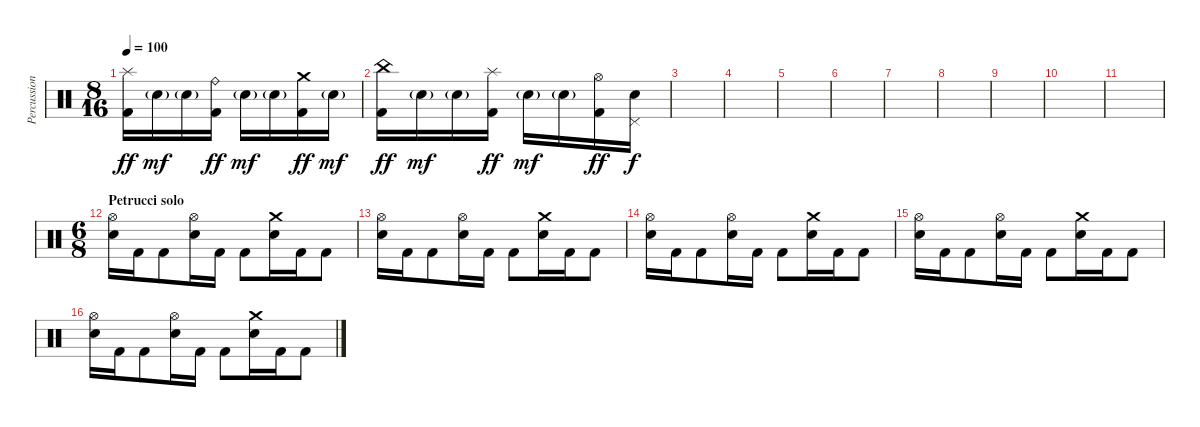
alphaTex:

\track ("Percussions" "Percussion") {instrument percussion}
\staff {score}
\articulation defaults
\ts (8 16)
\tempo 100
\clef neutral
\ks c
("Splash (hit)" "Kick (hit) 2").16{dy ff} "Electric Snare (hit)"{g}.16{dy mf} "Electric Snare (hit)"{g}.16 ("Ride (bell)" "Kick (hit) 2").16{dy ff} "Electric Snare (hit)"{g}.16{dy mf} "Electric Snare (hit)"{g}.16 ("Crash medium (hit)" "Kick (hit) 2").16{dy ff} "Electric Snare (hit)"{g}.16{dy mf} |
("China (hit)" "Kick (hit) 2").16{dy ff} "Electric Snare (hit)"{g}.16{dy mf} "Electric Snare (hit)"{g}.16 ("Splash (hit)" "Kick (hit) 2").16{dy ff} "Electric Snare (hit)"{g}.16{dy mf} "Electric Snare (hit)"{g}.16 ("Hi-Hat (open)" "Kick (hit) 2").16{dy ff} ("Pedal Hi-Hat (hit)" "Electric Snare (hit)").16{dy f} |
|
|
|
|
|
|
|
|
|
\ts (6 8)
\section ("" "Petrucci solo")
("Hi-Hat (open)" "Electric Snare (hit)").16 "Kick (hit) 2".16 "Kick (hit) 2".8 ("Hi-Hat (open)" "Electric Snare (hit)").16 "Kick (hit) 2".16 "Kick (hit) 2".8 ("Crash medium (hit)" "Electric Snare (hit)").16 "Kick (hit) 2".16 "Kick (hit) 2".8 |
("Hi-Hat (open)" "Electric Snare (hit)").16 "Kick (hit) 2".16 "Kick (hit) 2".8 ("Hi-Hat (open)" "Electric Snare (hit)").16 "Kick (hit) 2".16 "Kick (hit) 2".8 ("Crash medium (hit)" "Electric Snare (hit)").16 "Kick (hit) 2".16 "Kick (hit) 2".8 |
("Hi-Hat (open)" "Electric Snare (hit)").16 "Kick (hit) 2".16 "Kick (hit) 2".8 ("Hi-Hat (open)" "Electric Snare (hit)").16 "Kick (hit) 2".16 "Kick (hit) 2".8 ("Crash medium (hit)" "Electric Snare (hit)").16 "Kick (hit) 2".16 "Kick (hit) 2".8 |
("Hi-Hat (open)" "Electric Snare (hit)").16 "Kick (hit) 2".16 "Kick (hit) 2".8 ("Hi-Hat (open)" "Electric Snare (hit)").16 "Kick (hit) 2".16 "Kick (hit) 2".8 ("Crash medium (hit)" "Electric Snare (hit)").16 "Kick (hit) 2".16 "Kick (hit) 2".8 |
("Hi-Hat (open)" "Electric Snare (hit)").16 "Kick (hit) 2".16 "Kick (hit) 2".8 ("Hi-Hat (open)" "Electric Snare (hit)").16 "Kick (hit) 2".16 "Kick (hit) 2".8 ("Crash medium (hit)" "Electric Snare (hit)").16 "Kick (hit) 2".16 "Kick (hit) 2".8
